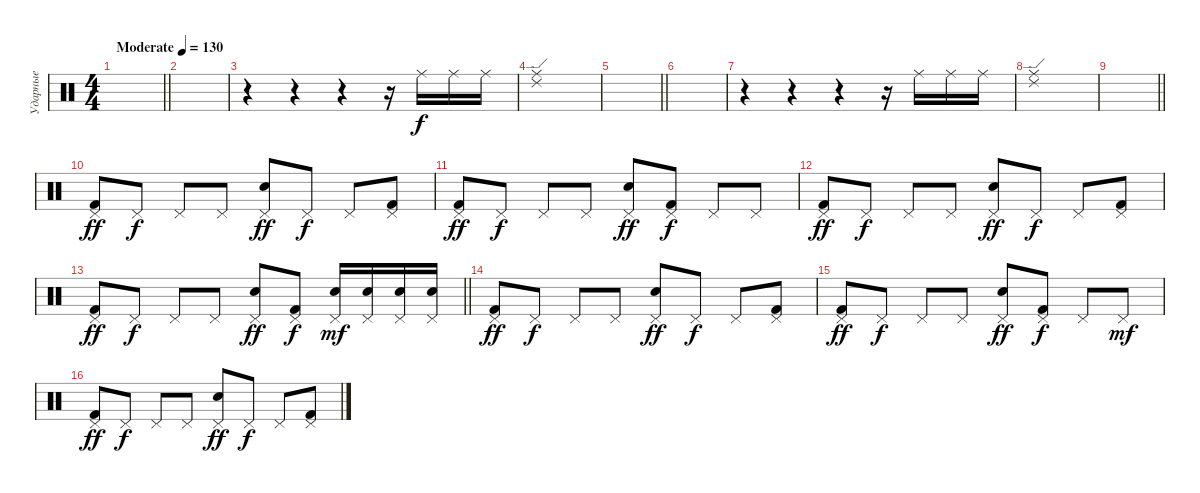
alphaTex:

\track ("Ударные" "Ударные") {instrument percussion}
\staff {score}
\articulation defaults
\ts (4 4)
\tempo (130 "Moderate")
\clef neutral
\barLineRight lightlight
\ks c
|
|
r.4 r.4 r.4{volume 0} r.16{volume 13} "Ride (middle)".16 "Ride (middle)".16 "Ride (middle)".16 |
("Ride (edge) 2" "Ride (middle)").1 |
\barLineRight lightlight
|
|
r.4 r.4 r.4{volume 0} r.16{volume 13} "Ride (middle)".16 "Ride (middle)".16 "Ride (middle)".16 |
("Ride (edge) 2" "Ride (middle)").1 |
\barLineRight lightlight
|
("Pedal Hi-Hat (hit)" "Kick (hit) 2").8{dy ff} "Pedal Hi-Hat (hit)".8{dy f} "Pedal Hi-Hat (hit)".8 "Pedal Hi-Hat (hit)".8 ("Pedal Hi-Hat (hit)" "Snare (hit) 2").8{dy ff} "Pedal Hi-Hat (hit)".8{dy f} "Pedal Hi-Hat (hit)".8 ("Pedal Hi-Hat (hit)" "Kick (hit) 2").8 |
("Pedal Hi-Hat (hit)" "Kick (hit) 2").8{dy ff} "Pedal Hi-Hat (hit)".8{dy f} "Pedal Hi-Hat (hit)".8 "Pedal Hi-Hat (hit)".8 ("Pedal Hi-Hat (hit)" "Snare (hit) 2").8{dy ff} ("Pedal Hi-Hat (hit)" "Kick (hit) 2").8{dy f} "Pedal Hi-Hat (hit)".8 "Pedal Hi-Hat (hit)".8 |
("Pedal Hi-Hat (hit)" "Kick (hit) 2").8{dy ff} "Pedal Hi-Hat (hit)".8{dy f} "Pedal Hi-Hat (hit)".8 "Pedal Hi-Hat (hit)".8 ("Pedal Hi-Hat (hit)" "Snare (hit) 2").8{dy ff} "Pedal Hi-Hat (hit)".8{dy f} "Pedal Hi-Hat (hit)".8 ("Pedal Hi-Hat (hit)" "Kick (hit) 2").8 |
\barLineRight lightlight
("Pedal Hi-Hat (hit)" "Kick (hit) 2").8{dy ff} "Pedal Hi-Hat (hit)".8{dy f} "Pedal Hi-Hat (hit)".8 "Pedal Hi-Hat (hit)".8 ("Pedal Hi-Hat (hit)" "Snare (hit) 2").8{dy ff} ("Pedal Hi-Hat (hit)" "Kick (hit) 2").8{dy f} ("Pedal Hi-Hat (hit)" "Snare (hit) 2").16{dy mf} ("Pedal Hi-Hat (hit)" "Snare (hit) 2").16 ("Pedal Hi-Hat (hit)" "Snare (hit) 2").16 ("Pedal Hi-Hat (hit)" "Snare (hit) 2").16 |
("Pedal Hi-Hat (hit)" "Kick (hit) 2").8{dy ff} "Pedal Hi-Hat (hit)".8{dy f} "Pedal Hi-Hat (hit)".8 "Pedal Hi-Hat (hit)".8 ("Pedal Hi-Hat (hit)" "Snare (hit) 2").8{dy ff} "Pedal Hi-Hat (hit)".8{dy f} "Pedal Hi-Hat (hit)".8 ("Pedal Hi-Hat (hit)" "Kick (hit) 2").8 |
("Pedal Hi-Hat (hit)" "Kick (hit) 2").8{dy ff} "Pedal Hi-Hat (hit)".8{dy f} "Pedal Hi-Hat (hit)".8 "Pedal Hi-Hat (hit)".8 ("Pedal Hi-Hat (hit)" "Snare (hit) 2").8{dy ff} ("Pedal Hi-Hat (hit)" "Kick (hit) 2").8{dy f} "Pedal Hi-Hat (hit)".8 "Pedal Hi-Hat (hit)".8{dy mf} |
("Pedal Hi-Hat (hit)" "Kick (hit) 2").8{dy ff} "Pedal Hi-Hat (hit)".8{dy f} "Pedal Hi-Hat (hit)".8 "Pedal Hi-Hat (hit)".8 ("Pedal Hi-Hat (hit)" "Snare (hit) 2").8{dy ff} "Pedal Hi-Hat (hit)".8{dy f} "Pedal Hi-Hat (hit)".8 ("Pedal Hi-Hat (hit)" "Kick (hit) 2").8
